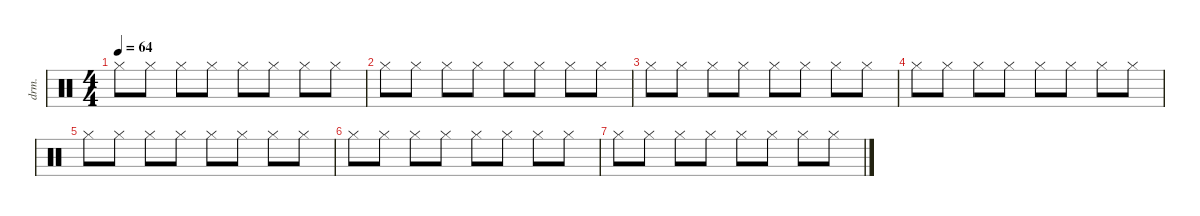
\defaultSystemsLayout 4
\hideDynamics
\bracketExtendMode nobrackets
\otherSystemsTrackNameOrientation horizontal
\track ("hit" "drm.") {instrument percussion}
\staff {score}
\articulation defaults
\ts (4 4)
\tempo 64
\clef neutral
\ks c "Hi-Hat (closed)".8{dy f} "Hi-Hat (closed)".8 "Hi-Hat (closed)".8 "Hi-Hat (closed)".8 "Hi-Hat (closed)".8 "Hi-Hat (closed)".8 "Hi-Hat (closed)".8 "Hi-Hat (closed)".8
|
"Hi-Hat (closed)".8 "Hi-Hat (closed)".8 "Hi-Hat (closed)".8 "Hi-Hat (closed)".8 "Hi-Hat (closed)".8 "Hi-Hat (closed)".8 "Hi-Hat (closed)".8 "Hi-Hat (closed)".8 |
"Hi-Hat (closed)".8 "Hi-Hat (closed)".8 "Hi-Hat (closed)".8 "Hi-Hat (closed)".8 "Hi-Hat (closed)".8 "Hi-Hat (closed)".8 "Hi-Hat (closed)".8 "Hi-Hat (closed)".8 |
"Hi-Hat (closed)".8 "Hi-Hat (closed)".8 "Hi-Hat (closed)".8 "Hi-Hat (closed)".8 "Hi-Hat (closed)".8 "Hi-Hat (closed)".8 "Hi-Hat (closed)".8 "Hi-Hat (closed)".8 |
"Hi-Hat (closed)".8 "Hi-Hat (closed)".8 "Hi-Hat (closed)".8 "Hi-Hat (closed)".8 "Hi-Hat (closed)".8 "Hi-Hat (closed)".8 "Hi-Hat (closed)".8 "Hi-Hat (closed)".8 |
"Hi-Hat (closed)".8 "Hi-Hat (closed)".8 "Hi-Hat (closed)".8 "Hi-Hat (closed)".8 "Hi-Hat (closed)".8 "Hi-Hat (closed)".8 "Hi-Hat (closed)".8 "Hi-Hat (closed)".8 |
"Hi-Hat (closed)".8 "Hi-Hat (closed)".8 "Hi-Hat (closed)".8 "Hi-Hat (closed)".8 "Hi-Hat (closed)".8 "Hi-Hat (closed)".8 "Hi-Hat (closed)".8 "Hi-Hat (closed)".8
